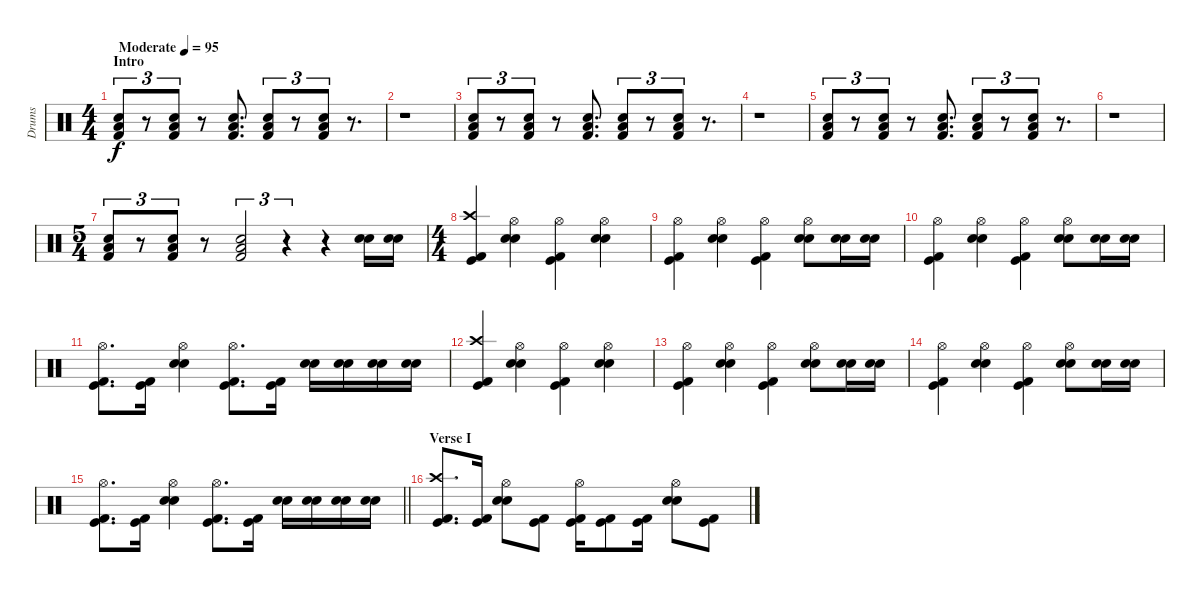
\track ("Drums" "Drums") {instrument percussion}
\staff {score}
\articulation defaults
\ts (4 4)
\section ("" "Intro")
\tempo (95 "Moderate")
\clef neutral
\ks c
("Snare (hit) 2" "Low Tom (hit)" "Kick (hit) 2").8{tu (3 2) dy f} r.8{tu (3 2)} ("Snare (hit) 2" "Low Tom (hit)" "Kick (hit) 2").8{tu (3 2)} r.8 ("Snare (hit) 2" "Low Tom (hit)" "Kick (hit) 2").8{d} ("Snare (hit) 2" "Low Tom (hit)" "Kick (hit) 2").8{tu (3 2)} r.8{tu (3 2)} ("Snare (hit) 2" "Low Tom (hit)" "Kick (hit) 2").8{tu (3 2)} r.8{d} |
r.1 |
("Snare (hit) 2" "Low Tom (hit)" "Kick (hit) 2").8{tu (3 2)} r.8{tu (3 2)} ("Snare (hit) 2" "Low Tom (hit)" "Kick (hit) 2").8{tu (3 2)} r.8 ("Snare (hit) 2" "Low Tom (hit)" "Kick (hit) 2").8{d} ("Snare (hit) 2" "Low Tom (hit)" "Kick (hit) 2").8{tu (3 2)} r.8{tu (3 2)} ("Snare (hit) 2" "Low Tom (hit)" "Kick (hit) 2").8{tu (3 2)} r.8{d} |
r.1 |
("Snare (hit) 2" "Low Tom (hit)" "Kick (hit) 2").8{tu (3 2)} r.8{tu (3 2)} ("Snare (hit) 2" "Low Tom (hit)" "Kick (hit) 2").8{tu (3 2)} r.8 ("Snare (hit) 2" "Low Tom (hit)" "Kick (hit) 2").8{d} ("Snare (hit) 2" "Low Tom (hit)" "Kick (hit) 2").8{tu (3 2)} r.8{tu (3 2)} ("Snare (hit) 2" "Low Tom (hit)" "Kick (hit) 2").8{tu (3 2)} r.8{d} |
r.1 |
\ts (5 4)
("Snare (hit) 2" "Low Tom (hit)" "Kick (hit) 2").8{tu (3 2)} r.8{tu (3 2)} ("Snare (hit) 2" "Low Tom (hit)" "Kick (hit) 2").8{tu (3 2)} r.8 ("Snare (hit) 2" "Low Tom (hit)" "Kick (hit) 2").2{tu (3 2)} r.4{tu (3 2)} r.4 ("Snare (hit) 2" "Electric Snare (hit)").16 ("Snare (hit) 2" "Electric Snare (hit)").16 |
\ts (4 4)
("Crash high (hit)" "Kick (hit)" "Kick (hit) 2").4 ("Hi-Hat (open)" "Snare (hit) 2" "Electric Snare (hit)").4 ("Hi-Hat (open)" "Kick (hit)" "Kick (hit) 2").4 ("Hi-Hat (open)" "Snare (hit) 2" "Electric Snare (hit)").4 |
("Hi-Hat (open)" "Kick (hit)" "Kick (hit) 2").4 ("Hi-Hat (open)" "Snare (hit) 2" "Electric Snare (hit)").4 ("Hi-Hat (open)" "Kick (hit)" "Kick (hit) 2").4 ("Hi-Hat (open)" "Snare (hit) 2" "Electric Snare (hit)").8 ("Snare (hit) 2" "Electric Snare (hit)").16 ("Snare (hit) 2" "Electric Snare (hit)").16 |
("Hi-Hat (open)" "Kick (hit)" "Kick (hit) 2").4 ("Hi-Hat (open)" "Snare (hit) 2" "Electric Snare (hit)").4 ("Hi-Hat (open)" "Kick (hit)" "Kick (hit) 2").4 ("Hi-Hat (open)" "Snare (hit) 2" "Electric Snare (hit)").8 ("Snare (hit) 2" "Electric Snare (hit)").16 ("Snare (hit) 2" "Electric Snare (hit)").16 |
("Hi-Hat (open)" "Kick (hit)" "Kick (hit) 2").8{d} ("Kick (hit)" "Kick (hit) 2").16 ("Hi-Hat (open)" "Snare (hit) 2" "Electric Snare (hit)").4 ("Hi-Hat (open)" "Kick (hit)" "Kick (hit) 2").8{d} ("Kick (hit)" "Kick (hit) 2").16 ("Snare (hit) 2" "Electric Snare (hit)").16 ("Snare (hit) 2" "Electric Snare (hit)").16 ("Snare (hit) 2" "Electric Snare (hit)").16 ("Snare (hit) 2" "Electric Snare (hit)").16 |
("Crash high (hit)" "Kick (hit)" "Kick (hit) 2").4 ("Hi-Hat (open)" "Snare (hit) 2" "Electric Snare (hit)").4 ("Hi-Hat (open)" "Kick (hit)" "Kick (hit) 2").4 ("Hi-Hat (open)" "Snare (hit) 2" "Electric Snare (hit)").4 |
("Hi-Hat (open)" "Kick (hit)" "Kick (hit) 2").4 ("Hi-Hat (open)" "Snare (hit) 2" "Electric Snare (hit)").4 ("Hi-Hat (open)" "Kick (hit)" "Kick (hit) 2").4 ("Hi-Hat (open)" "Snare (hit) 2" "Electric Snare (hit)").8 ("Snare (hit) 2" "Electric Snare (hit)").16 ("Snare (hit) 2" "Electric Snare (hit)").16 |
("Hi-Hat (open)" "Kick (hit)" "Kick (hit) 2").4 ("Hi-Hat (open)" "Snare (hit) 2" "Electric Snare (hit)").4 ("Hi-Hat (open)" "Kick (hit)" "Kick (hit) 2").4 ("Hi-Hat (open)" "Snare (hit) 2" "Electric Snare (hit)").8 ("Snare (hit) 2" "Electric Snare (hit)").16 ("Snare (hit) 2" "Electric Snare (hit)").16 |
\barLineRight lightlight
("Hi-Hat (open)" "Kick (hit)" "Kick (hit) 2").8{d} ("Kick (hit)" "Kick (hit) 2").16 ("Hi-Hat (open)" "Snare (hit) 2" "Electric Snare (hit)").4 ("Hi-Hat (open)" "Kick (hit)" "Kick (hit) 2").8{d} ("Kick (hit)" "Kick (hit) 2").16 ("Snare (hit) 2" "Electric Snare (hit)").16 ("Snare (hit) 2" "Electric Snare (hit)").16 ("Snare (hit) 2" "Electric Snare (hit)").16 ("Snare (hit) 2" "Electric Snare (hit)").16 |
\section ("" "Verse I")
("Crash high (hit)" "Kick (hit)" "Kick (hit) 2").8{d} ("Kick (hit)" "Kick (hit) 2").16 ("Hi-Hat (open)" "Snare (hit) 2" "Electric Snare (hit)").8 ("Kick (hit)" "Kick (hit) 2").8 ("Hi-Hat (open)" "Kick (hit)" "Kick (hit) 2").16 ("Kick (hit)" "Kick (hit) 2").8 ("Kick (hit)" "Kick (hit) 2").16 ("Hi-Hat (open)" "Snare (hit) 2" "Electric Snare (hit)").8 ("Kick (hit)" "Kick (hit) 2").8
